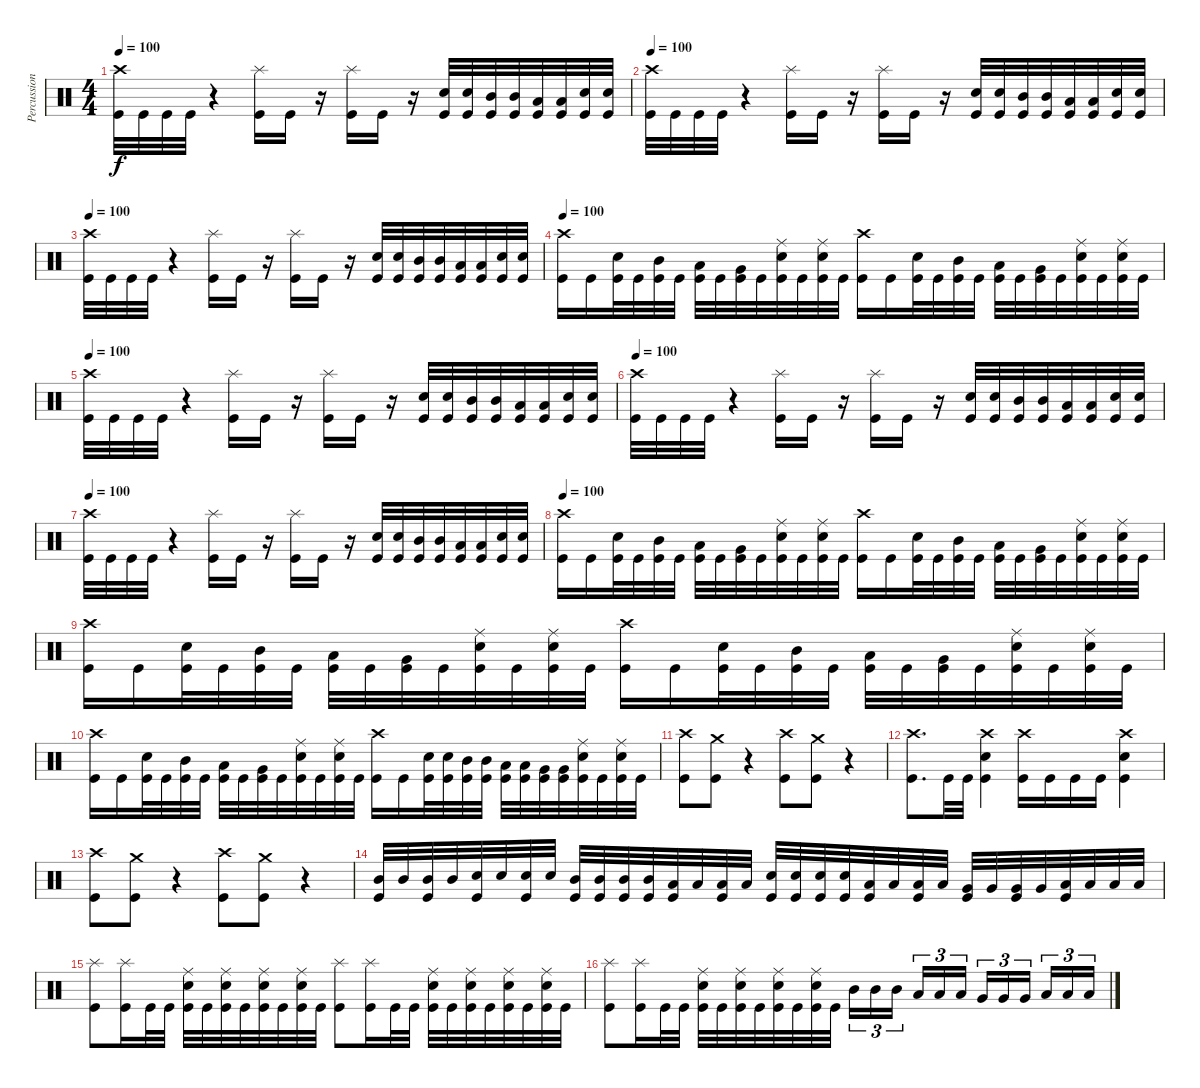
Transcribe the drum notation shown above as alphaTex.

\track ("Percussion" "Percussion") {instrument percussion}
\staff {score}
\articulation defaults
\ts (4 4)
\tempo 100
\clef neutral
\ks c
("Crash high (hit)" "Kick (hit)").32{dy f} "Kick (hit)".32 "Kick (hit)".32 "Kick (hit)".32 r.4 ("Splash (hit)" "Kick (hit)").16 "Kick (hit)".16 r.16 ("Splash (hit)" "Kick (hit)").16 "Kick (hit)".16 r.16 ("Electric Snare (hit)" "Kick (hit)").32 ("Electric Snare (hit)" "Kick (hit)").32 ("Mid Tom (hit)" "Kick (hit)").32 ("Mid Tom (hit)" "Kick (hit)").32 ("Low Tom (hit)" "Kick (hit)").32 ("Low Tom (hit)" "Kick (hit)").32 ("Electric Snare (hit)" "Kick (hit)").32 ("Electric Snare (hit)" "Kick (hit)").32 |
\tempo 100
("Crash high (hit)" "Kick (hit)").32 "Kick (hit)".32 "Kick (hit)".32 "Kick (hit)".32 r.4 ("Splash (hit)" "Kick (hit)").16 "Kick (hit)".16 r.16 ("Splash (hit)" "Kick (hit)").16 "Kick (hit)".16 r.16 ("Electric Snare (hit)" "Kick (hit)").32 ("Electric Snare (hit)" "Kick (hit)").32 ("Mid Tom (hit)" "Kick (hit)").32 ("Mid Tom (hit)" "Kick (hit)").32 ("Low Tom (hit)" "Kick (hit)").32 ("Low Tom (hit)" "Kick (hit)").32 ("Electric Snare (hit)" "Kick (hit)").32 ("Electric Snare (hit)" "Kick (hit)").32 |
\tempo 100
("Crash high (hit)" "Kick (hit)").32 "Kick (hit)".32 "Kick (hit)".32 "Kick (hit)".32 r.4 ("Splash (hit)" "Kick (hit)").16 "Kick (hit)".16 r.16 ("Splash (hit)" "Kick (hit)").16 "Kick (hit)".16 r.16 ("Electric Snare (hit)" "Kick (hit)").32 ("Electric Snare (hit)" "Kick (hit)").32 ("Mid Tom (hit)" "Kick (hit)").32 ("Mid Tom (hit)" "Kick (hit)").32 ("Low Tom (hit)" "Kick (hit)").32 ("Low Tom (hit)" "Kick (hit)").32 ("Electric Snare (hit)" "Kick (hit)").32 ("Electric Snare (hit)" "Kick (hit)").32 |
\tempo 100
("Crash high (hit)" "Kick (hit)").16 "Kick (hit)".16 ("Electric Snare (hit)" "Kick (hit)").32 "Kick (hit)".32 ("Mid Tom (hit)" "Kick (hit)").32 "Kick (hit)".32 ("Low Tom (hit)" "Kick (hit)").32 "Kick (hit)".32 ("Very Low Tom (hit)" "Kick (hit)").32 "Kick (hit)".32 ("Ride (middle)" "Electric Snare (hit)" "Kick (hit)").32 "Kick (hit)".32 ("Ride (middle)" "Electric Snare (hit)" "Kick (hit)").32 "Kick (hit)".32 ("Crash high (hit)" "Kick (hit)").16 "Kick (hit)".16 ("Electric Snare (hit)" "Kick (hit)").32 "Kick (hit)".32 ("Mid Tom (hit)" "Kick (hit)").32 "Kick (hit)".32 ("Low Tom (hit)" "Kick (hit)").32 "Kick (hit)".32 ("Very Low Tom (hit)" "Kick (hit)").32 "Kick (hit)".32 ("Ride (middle)" "Electric Snare (hit)" "Kick (hit)").32 "Kick (hit)".32 ("Ride (middle)" "Electric Snare (hit)" "Kick (hit)").32 "Kick (hit)".32 |
\tempo 100
("Crash high (hit)" "Kick (hit)").32 "Kick (hit)".32 "Kick (hit)".32 "Kick (hit)".32 r.4 ("Splash (hit)" "Kick (hit)").16 "Kick (hit)".16 r.16 ("Splash (hit)" "Kick (hit)").16 "Kick (hit)".16 r.16 ("Electric Snare (hit)" "Kick (hit)").32 ("Electric Snare (hit)" "Kick (hit)").32 ("Mid Tom (hit)" "Kick (hit)").32 ("Mid Tom (hit)" "Kick (hit)").32 ("Low Tom (hit)" "Kick (hit)").32 ("Low Tom (hit)" "Kick (hit)").32 ("Electric Snare (hit)" "Kick (hit)").32 ("Electric Snare (hit)" "Kick (hit)").32 |
\tempo 100
("Crash high (hit)" "Kick (hit)").32 "Kick (hit)".32 "Kick (hit)".32 "Kick (hit)".32 r.4 ("Splash (hit)" "Kick (hit)").16 "Kick (hit)".16 r.16 ("Splash (hit)" "Kick (hit)").16 "Kick (hit)".16 r.16 ("Electric Snare (hit)" "Kick (hit)").32 ("Electric Snare (hit)" "Kick (hit)").32 ("Mid Tom (hit)" "Kick (hit)").32 ("Mid Tom (hit)" "Kick (hit)").32 ("Low Tom (hit)" "Kick (hit)").32 ("Low Tom (hit)" "Kick (hit)").32 ("Electric Snare (hit)" "Kick (hit)").32 ("Electric Snare (hit)" "Kick (hit)").32 |
\tempo 100
("Crash high (hit)" "Kick (hit)").32 "Kick (hit)".32 "Kick (hit)".32 "Kick (hit)".32 r.4 ("Splash (hit)" "Kick (hit)").16 "Kick (hit)".16 r.16 ("Splash (hit)" "Kick (hit)").16 "Kick (hit)".16 r.16 ("Electric Snare (hit)" "Kick (hit)").32 ("Electric Snare (hit)" "Kick (hit)").32 ("Mid Tom (hit)" "Kick (hit)").32 ("Mid Tom (hit)" "Kick (hit)").32 ("Low Tom (hit)" "Kick (hit)").32 ("Low Tom (hit)" "Kick (hit)").32 ("Electric Snare (hit)" "Kick (hit)").32 ("Electric Snare (hit)" "Kick (hit)").32 |
\tempo 100
("Crash high (hit)" "Kick (hit)").16 "Kick (hit)".16 ("Electric Snare (hit)" "Kick (hit)").32 "Kick (hit)".32 ("Mid Tom (hit)" "Kick (hit)").32 "Kick (hit)".32 ("Low Tom (hit)" "Kick (hit)").32 "Kick (hit)".32 ("Very Low Tom (hit)" "Kick (hit)").32 "Kick (hit)".32 ("Ride (middle)" "Electric Snare (hit)" "Kick (hit)").32 "Kick (hit)".32 ("Ride (middle)" "Electric Snare (hit)" "Kick (hit)").32 "Kick (hit)".32 ("Crash high (hit)" "Kick (hit)").16 "Kick (hit)".16 ("Electric Snare (hit)" "Kick (hit)").32 "Kick (hit)".32 ("Mid Tom (hit)" "Kick (hit)").32 "Kick (hit)".32 ("Low Tom (hit)" "Kick (hit)").32 "Kick (hit)".32 ("Very Low Tom (hit)" "Kick (hit)").32 "Kick (hit)".32 ("Ride (middle)" "Electric Snare (hit)" "Kick (hit)").32 "Kick (hit)".32 ("Ride (middle)" "Electric Snare (hit)" "Kick (hit)").32 "Kick (hit)".32 |
("Crash high (hit)" "Kick (hit)").16 "Kick (hit)".16 ("Electric Snare (hit)" "Kick (hit)").32 "Kick (hit)".32 ("Mid Tom (hit)" "Kick (hit)").32 "Kick (hit)".32 ("Low Tom (hit)" "Kick (hit)").32 "Kick (hit)".32 ("Very Low Tom (hit)" "Kick (hit)").32 "Kick (hit)".32 ("Ride (middle)" "Electric Snare (hit)" "Kick (hit)").32 "Kick (hit)".32 ("Ride (middle)" "Electric Snare (hit)" "Kick (hit)").32 "Kick (hit)".32 ("Crash high (hit)" "Kick (hit)").16 "Kick (hit)".16 ("Electric Snare (hit)" "Kick (hit)").32 "Kick (hit)".32 ("Mid Tom (hit)" "Kick (hit)").32 "Kick (hit)".32 ("Low Tom (hit)" "Kick (hit)").32 "Kick (hit)".32 ("Very Low Tom (hit)" "Kick (hit)").32 "Kick (hit)".32 ("Ride (middle)" "Electric Snare (hit)" "Kick (hit)").32 "Kick (hit)".32 ("Ride (middle)" "Electric Snare (hit)" "Kick (hit)").32 "Kick (hit)".32 |
("Crash high (hit)" "Kick (hit)").16 "Kick (hit)".16 ("Electric Snare (hit)" "Kick (hit)").32 "Kick (hit)".32 ("Mid Tom (hit)" "Kick (hit)").32 "Kick (hit)".32 ("Low Tom (hit)" "Kick (hit)").32 "Kick (hit)".32 ("Very Low Tom (hit)" "Kick (hit)").32 "Kick (hit)".32 ("Ride (middle)" "Electric Snare (hit)" "Kick (hit)").32 "Kick (hit)".32 ("Ride (middle)" "Electric Snare (hit)" "Kick (hit)").32 "Kick (hit)".32 ("Crash high (hit)" "Kick (hit)").16 "Kick (hit)".16 ("Electric Snare (hit)" "Kick (hit)").32 ("Electric Snare (hit)" "Kick (hit)").32 ("Mid Tom (hit)" "Kick (hit)").32 ("Mid Tom (hit)" "Kick (hit)").32 ("Low Tom (hit)" "Kick (hit)").32 ("Low Tom (hit)" "Kick (hit)").32 ("Very Low Tom (hit)" "Kick (hit)").32 ("Very Low Tom (hit)" "Kick (hit)").32 ("Ride (middle)" "Electric Snare (hit)" "Kick (hit)").32 "Kick (hit)".32 ("Ride (middle)" "Electric Snare (hit)" "Kick (hit)").32 "Kick (hit)".32 |
("Crash high (hit)" "Kick (hit)").8 ("Crash medium (hit)" "Kick (hit)").8 r.4 ("Crash high (hit)" "Kick (hit)").8 ("Crash medium (hit)" "Kick (hit)").8 r.4 |
("Crash high (hit)" "Kick (hit)").8{d} "Kick (hit)".32 "Kick (hit)".32 ("Crash high (hit)" "Electric Snare (hit)" "Kick (hit)").4 ("Crash high (hit)" "Kick (hit)").16 "Kick (hit)".16 "Kick (hit)".16 "Kick (hit)".16 ("Crash high (hit)" "Electric Snare (hit)" "Kick (hit)").4 |
("Crash high (hit)" "Kick (hit)").8 ("Crash medium (hit)" "Kick (hit)").8 r.4 ("Crash high (hit)" "Kick (hit)").8 ("Crash medium (hit)" "Kick (hit)").8 r.4 |
("Mid Tom (hit)" "Kick (hit)").32 "Mid Tom (hit)".32 ("Mid Tom (hit)" "Kick (hit)").32 "Mid Tom (hit)".32 ("Electric Snare (hit)" "Kick (hit)").32 "Electric Snare (hit)".32 ("Electric Snare (hit)" "Kick (hit)").32 "Electric Snare (hit)".32 ("Mid Tom (hit)" "Kick (hit)").32 ("Mid Tom (hit)" "Kick (hit)").32 ("Mid Tom (hit)" "Kick (hit)").32 ("Mid Tom (hit)" "Kick (hit)").32 ("Low Tom (hit)" "Kick (hit)").32 "Low Tom (hit)".32 ("Low Tom (hit)" "Kick (hit)").32 "Low Tom (hit)".32 ("Electric Snare (hit)" "Kick (hit)").32 ("Electric Snare (hit)" "Kick (hit)").32 ("Electric Snare (hit)" "Kick (hit)").32 ("Electric Snare (hit)" "Kick (hit)").32 ("Low Tom (hit)" "Kick (hit)").32 "Low Tom (hit)".32 ("Low Tom (hit)" "Kick (hit)").32 "Low Tom (hit)".32 ("Very Low Tom (hit)" "Kick (hit)").32 "Very Low Tom (hit)".32 ("Very Low Tom (hit)" "Kick (hit)").32 "Very Low Tom (hit)".32 ("Low Floor Tom (hit)" "Kick (hit)").32 "Low Floor Tom (hit)".32 "Low Floor Tom (hit)".32 "Low Floor Tom (hit)".32 |
("Splash (hit)" "Kick (hit)").8 ("Splash (hit)" "Kick (hit)").16 "Kick (hit)".32 "Kick (hit)".32 ("Ride (middle)" "Electric Snare (hit)" "Kick (hit)").32 "Kick (hit)".32 ("Ride (middle)" "Electric Snare (hit)" "Kick (hit)").32 "Kick (hit)".32 ("Ride (middle)" "Electric Snare (hit)" "Kick (hit)").32 "Kick (hit)".32 ("Ride (middle)" "Electric Snare (hit)" "Kick (hit)").32 "Kick (hit)".32 ("Splash (hit)" "Kick (hit)").8 ("Splash (hit)" "Kick (hit)").16 "Kick (hit)".32 "Kick (hit)".32 ("Ride (middle)" "Electric Snare (hit)" "Kick (hit)").32 "Kick (hit)".32 ("Ride (middle)" "Electric Snare (hit)" "Kick (hit)").32 "Kick (hit)".32 ("Ride (middle)" "Electric Snare (hit)" "Kick (hit)").32 "Kick (hit)".32 ("Ride (middle)" "Electric Snare (hit)" "Kick (hit)").32 "Kick (hit)".32 |
("Splash (hit)" "Kick (hit)").8 ("Splash (hit)" "Kick (hit)").16 "Kick (hit)".32 "Kick (hit)".32 ("Ride (middle)" "Electric Snare (hit)" "Kick (hit)").32 "Kick (hit)".32 ("Ride (middle)" "Electric Snare (hit)" "Kick (hit)").32 "Kick (hit)".32 ("Ride (middle)" "Electric Snare (hit)" "Kick (hit)").32 "Kick (hit)".32 ("Ride (middle)" "Electric Snare (hit)" "Kick (hit)").32 "Kick (hit)".32 "Mid Tom (hit)".16{tu (3 2)} "Mid Tom (hit)".16{tu (3 2)} "Mid Tom (hit)".16{tu (3 2) beam splitsecondary} "Low Tom (hit)".16{tu (3 2)} "Low Tom (hit)".16{tu (3 2)} "Low Tom (hit)".16{tu (3 2)} "Very Low Tom (hit)".16{tu (3 2)} "Very Low Tom (hit)".16{tu (3 2)} "Very Low Tom (hit)".16{tu (3 2) beam splitsecondary} "Low Floor Tom (hit)".16{tu (3 2)} "Low Floor Tom (hit)".16{tu (3 2)} "Low Floor Tom (hit)".16{tu (3 2)}
